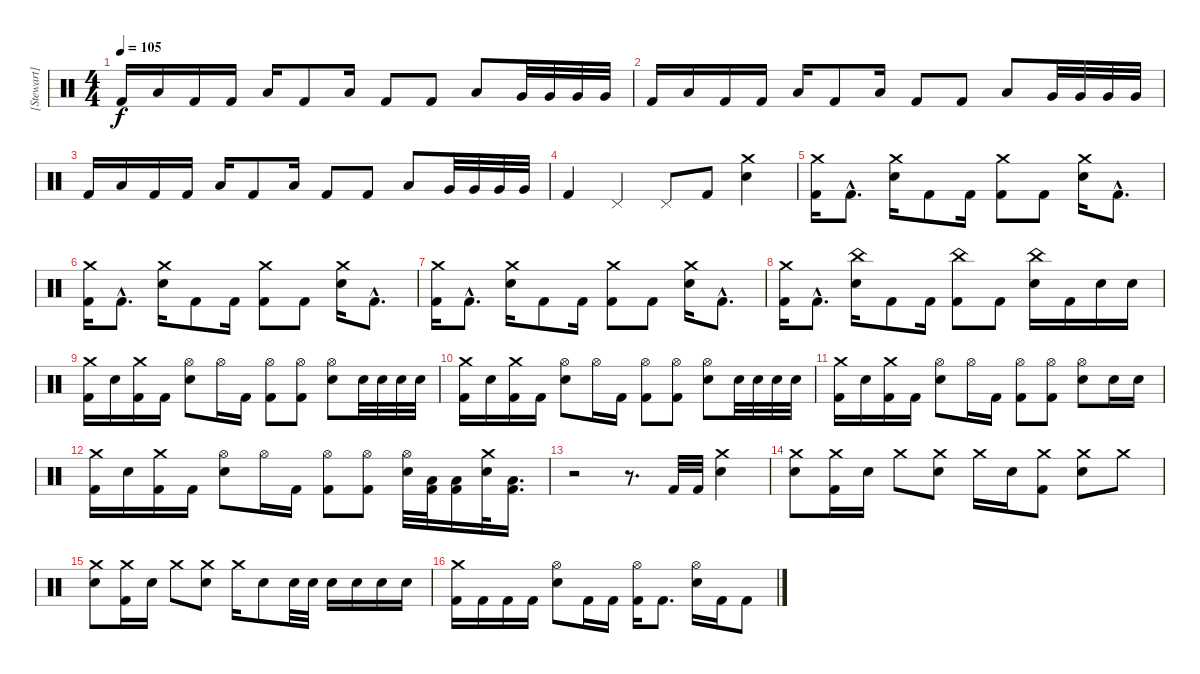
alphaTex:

\track ("[Stewart]" "[Stewart]") {instrument percussion}
\staff {score}
\articulation defaults
\ts (4 4)
\tempo 105
\clef neutral
\ks c "Kick (hit) 2".16{dy f} "Low Tom (hit)".16 "Kick (hit) 2".16 "Kick (hit) 2".16 "Low Tom (hit)".16 "Kick (hit) 2".8 "Low Tom (hit)".16 "Kick (hit) 2".8 "Kick (hit) 2".8 "Low Tom (hit)".8 "Very Low Tom (hit)".32 "Very Low Tom (hit)".32 "Very Low Tom (hit)".32 "Very Low Tom (hit)".32
|
"Kick (hit) 2".16 "Low Tom (hit)".16 "Kick (hit) 2".16 "Kick (hit) 2".16 "Low Tom (hit)".16 "Kick (hit) 2".8 "Low Tom (hit)".16 "Kick (hit) 2".8 "Kick (hit) 2".8 "Low Tom (hit)".8 "Very Low Tom (hit)".32 "Very Low Tom (hit)".32 "Very Low Tom (hit)".32 "Very Low Tom (hit)".32 |
"Kick (hit) 2".16 "Low Tom (hit)".16 "Kick (hit) 2".16 "Kick (hit) 2".16 "Low Tom (hit)".16 "Kick (hit) 2".8 "Low Tom (hit)".16 "Kick (hit) 2".8 "Kick (hit) 2".8 "Low Tom (hit)".8 "Very Low Tom (hit)".32 "Very Low Tom (hit)".32 "Very Low Tom (hit)".32 "Very Low Tom (hit)".32 |
"Kick (hit) 2".4 "Pedal Hi-Hat (hit)".4 "Pedal Hi-Hat (hit)".8 "Kick (hit) 2".8 ("Crash medium (hit)" "Electric Snare (hit)").4 |
("Crash medium (hit)" "Kick (hit) 2").16 "Kick (hit) 2"{hac}.8{d} ("Crash medium (hit)" "Electric Snare (hit)").16 "Kick (hit) 2".8 "Kick (hit) 2".16 ("Crash medium (hit)" "Kick (hit) 2").8 "Kick (hit) 2".8 ("Crash medium (hit)" "Electric Snare (hit)").16 "Kick (hit) 2"{hac}.8{d} |
("Crash medium (hit)" "Kick (hit) 2").16 "Kick (hit) 2"{hac}.8{d} ("Crash medium (hit)" "Electric Snare (hit)").16 "Kick (hit) 2".8 "Kick (hit) 2".16 ("Crash medium (hit)" "Kick (hit) 2").8 "Kick (hit) 2".8 ("Crash medium (hit)" "Electric Snare (hit)").16 "Kick (hit) 2"{hac}.8{d} |
("Crash medium (hit)" "Kick (hit) 2").16 "Kick (hit) 2"{hac}.8{d} ("Crash medium (hit)" "Electric Snare (hit)").16 "Kick (hit) 2".8 "Kick (hit) 2".16 ("Crash medium (hit)" "Kick (hit) 2").8 "Kick (hit) 2".8 ("Crash medium (hit)" "Electric Snare (hit)").16 "Kick (hit) 2"{hac}.8{d} |
("Crash medium (hit)" "Kick (hit) 2").16 "Kick (hit) 2"{hac}.8{d} ("China (hit)" "Electric Snare (hit)").16 "Kick (hit) 2".8 "Kick (hit) 2".16 ("China (hit)" "Kick (hit) 2").8 "Kick (hit) 2".8 ("China (hit)" "Electric Snare (hit)").16 "Kick (hit) 2".16 "Electric Snare (hit)".16 "Electric Snare (hit)".16 |
("Crash medium (hit)" "Kick (hit) 2").16 "Electric Snare (hit)".16 ("Crash medium (hit)" "Kick (hit) 2").16 "Kick (hit) 2".16 ("Hi-Hat (open)" "Electric Snare (hit)").8 "Hi-Hat (open)".16 "Kick (hit) 2".16 ("Hi-Hat (open)" "Kick (hit) 2").8 ("Hi-Hat (open)" "Kick (hit) 2").8 ("Hi-Hat (open)" "Electric Snare (hit)").8 "Electric Snare (hit)".32 "Electric Snare (hit)".32 "Electric Snare (hit)".32 "Electric Snare (hit)".32 |
("Crash medium (hit)" "Kick (hit) 2").16 "Electric Snare (hit)".16 ("Crash medium (hit)" "Kick (hit) 2").16 "Kick (hit) 2".16 ("Hi-Hat (open)" "Electric Snare (hit)").8 "Hi-Hat (open)".16 "Kick (hit) 2".16 ("Hi-Hat (open)" "Kick (hit) 2").8 ("Hi-Hat (open)" "Kick (hit) 2").8 ("Hi-Hat (open)" "Electric Snare (hit)").8 "Electric Snare (hit)".32 "Electric Snare (hit)".32 "Electric Snare (hit)".32 "Electric Snare (hit)".32 |
("Crash medium (hit)" "Kick (hit) 2").16 "Electric Snare (hit)".16 ("Crash medium (hit)" "Kick (hit) 2").16 "Kick (hit) 2".16 ("Hi-Hat (open)" "Electric Snare (hit)").8 "Hi-Hat (open)".16 "Kick (hit) 2".16 ("Hi-Hat (open)" "Kick (hit) 2").8 ("Hi-Hat (open)" "Kick (hit) 2").8 ("Hi-Hat (open)" "Electric Snare (hit)").8 "Electric Snare (hit)".16 "Electric Snare (hit)".16 |
("Crash medium (hit)" "Kick (hit) 2").16 "Electric Snare (hit)".16 ("Crash medium (hit)" "Kick (hit) 2").16 "Kick (hit) 2".16 ("Hi-Hat (open)" "Electric Snare (hit)").8 "Hi-Hat (open)".16 "Kick (hit) 2".16 ("Hi-Hat (open)" "Kick (hit) 2").8 ("Hi-Hat (open)" "Kick (hit) 2").8 ("Hi-Hat (open)" "Electric Snare (hit)").32 ("Low Tom (hit)" "Kick (hit) 2").32 ("Low Tom (hit)" "Kick (hit) 2").16 ("Crash medium (hit)" "Electric Snare (hit)").32 ("Low Tom (hit)" "Kick (hit) 2").16{d} |
r.2 r.8{d} "Kick (hit) 2".32 "Kick (hit) 2".32 ("Crash medium (hit)" "Electric Snare (hit)").4 |
("Crash medium (hit)" "Electric Snare (hit)").8 ("Crash medium (hit)" "Kick (hit) 2").16 "Electric Snare (hit)".16 "Crash medium (hit)".8 ("Crash medium (hit)" "Electric Snare (hit)").8 "Crash medium (hit)".16 "Electric Snare (hit)".16 ("Crash medium (hit)" "Kick (hit) 2").8 ("Crash medium (hit)" "Electric Snare (hit)").8 "Crash medium (hit)".8 |
("Crash medium (hit)" "Electric Snare (hit)").8 ("Crash medium (hit)" "Kick (hit) 2").16 "Electric Snare (hit)".16 "Crash medium (hit)".8 ("Crash medium (hit)" "Electric Snare (hit)").8 "Crash medium (hit)".16 "Electric Snare (hit)".8 "Electric Snare (hit)".32 "Electric Snare (hit)".32 "Electric Snare (hit)".16 "Electric Snare (hit)".16 "Electric Snare (hit)".16 "Electric Snare (hit)".16 |
("Crash medium (hit)" "Kick (hit) 2").16 "Kick (hit) 2".16 "Kick (hit) 2".16 "Kick (hit) 2".16 ("Hi-Hat (open)" "Electric Snare (hit)").8 "Kick (hit) 2".16 "Kick (hit) 2".16 ("Hi-Hat (open)" "Kick (hit) 2").16 "Kick (hit) 2".8{d} ("Hi-Hat (open)" "Electric Snare (hit)").16 "Kick (hit) 2".16 "Kick (hit) 2".8
